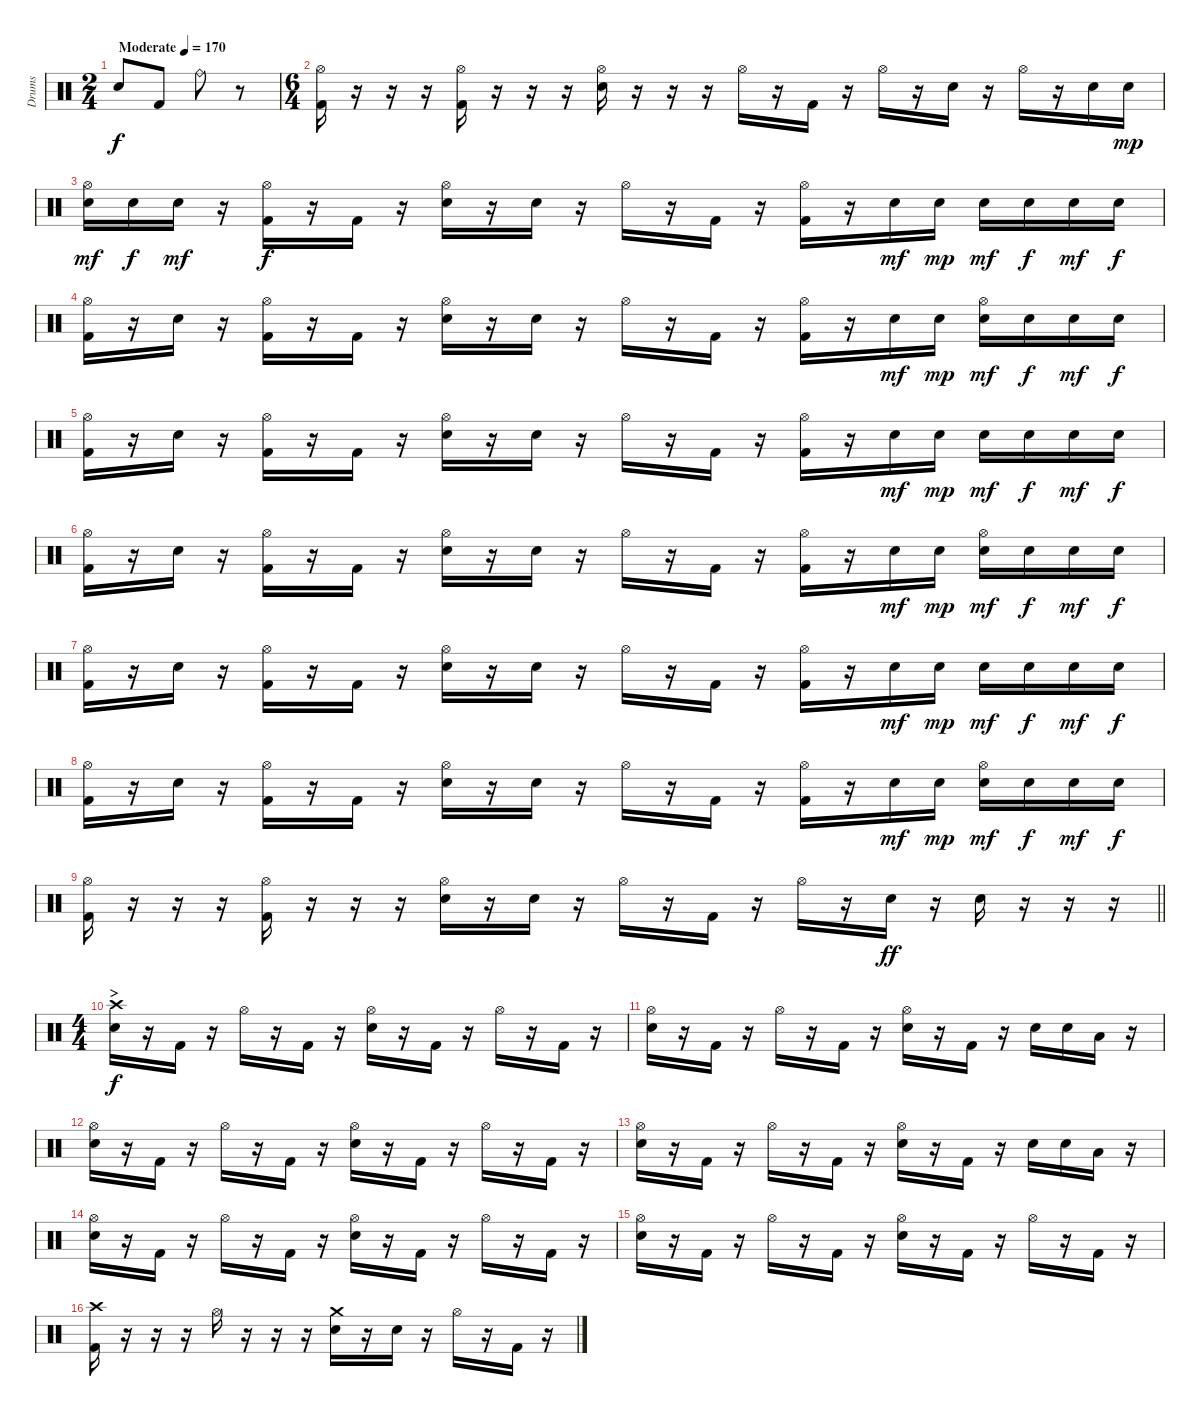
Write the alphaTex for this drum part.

\track ("Drums" "Drums") {instrument percussion}
\staff {score}
\articulation defaults
\ts (2 4)
\tempo (170 "Moderate")
\clef neutral
\ks c "Electric Snare (hit)".8{dy f} "Kick (hit) 2".8 "Ride (bell)".8
r.8 |
\ts (6 4)
("Hi-Hat (open)" "Kick (hit) 2").16 r.16 r.16 r.16 ("Hi-Hat (open)" "Kick (hit) 2").16 r.16 r.16 r.16 ("Hi-Hat (open)" "Electric Snare (hit)").16 r.16 r.16 r.16 "Hi-Hat (open)".16 r.16 "Kick (hit) 2".16 r.16 "Hi-Hat (open)".16 r.16 "Electric Snare (hit)".16 r.16 "Hi-Hat (open)".16 r.16 "Electric Snare (hit)".16 "Electric Snare (hit)".16{dy mp} |
("Hi-Hat (open)" "Electric Snare (hit)").16{dy mf} "Electric Snare (hit)".16{dy f} "Electric Snare (hit)".16{dy mf} r.16 ("Hi-Hat (open)" "Kick (hit) 2").16{dy f} r.16 "Kick (hit) 2".16 r.16 ("Hi-Hat (open)" "Electric Snare (hit)").16 r.16 "Electric Snare (hit)".16 r.16 "Hi-Hat (open)".16 r.16 "Kick (hit) 2".16 r.16 ("Hi-Hat (open)" "Kick (hit) 2").16 r.16 "Electric Snare (hit)".16{dy mf} "Electric Snare (hit)".16{dy mp} "Electric Snare (hit)".16{dy mf} "Electric Snare (hit)".16{dy f} "Electric Snare (hit)".16{dy mf} "Electric Snare (hit)".16{dy f} |
("Hi-Hat (open)" "Kick (hit) 2").16 r.16 "Electric Snare (hit)".16 r.16 ("Hi-Hat (open)" "Kick (hit) 2").16 r.16 "Kick (hit) 2".16 r.16 ("Hi-Hat (open)" "Electric Snare (hit)").16 r.16 "Electric Snare (hit)".16 r.16 "Hi-Hat (open)".16 r.16 "Kick (hit) 2".16 r.16 ("Hi-Hat (open)" "Kick (hit) 2").16 r.16 "Electric Snare (hit)".16{dy mf} "Electric Snare (hit)".16{dy mp} ("Hi-Hat (open)" "Electric Snare (hit)").16{dy mf} "Electric Snare (hit)".16{dy f} "Electric Snare (hit)".16{dy mf} "Electric Snare (hit)".16{dy f} |
("Hi-Hat (open)" "Kick (hit) 2").16 r.16 "Electric Snare (hit)".16 r.16 ("Hi-Hat (open)" "Kick (hit) 2").16 r.16 "Kick (hit) 2".16 r.16 ("Hi-Hat (open)" "Electric Snare (hit)").16 r.16 "Electric Snare (hit)".16 r.16 "Hi-Hat (open)".16 r.16 "Kick (hit) 2".16 r.16 ("Hi-Hat (open)" "Kick (hit) 2").16 r.16 "Electric Snare (hit)".16{dy mf} "Electric Snare (hit)".16{dy mp} "Electric Snare (hit)".16{dy mf} "Electric Snare (hit)".16{dy f} "Electric Snare (hit)".16{dy mf} "Electric Snare (hit)".16{dy f} |
("Hi-Hat (open)" "Kick (hit) 2").16 r.16 "Electric Snare (hit)".16 r.16 ("Hi-Hat (open)" "Kick (hit) 2").16 r.16 "Kick (hit) 2".16 r.16 ("Hi-Hat (open)" "Electric Snare (hit)").16 r.16 "Electric Snare (hit)".16 r.16 "Hi-Hat (open)".16 r.16 "Kick (hit) 2".16 r.16 ("Hi-Hat (open)" "Kick (hit) 2").16 r.16 "Electric Snare (hit)".16{dy mf} "Electric Snare (hit)".16{dy mp} ("Hi-Hat (open)" "Electric Snare (hit)").16{dy mf} "Electric Snare (hit)".16{dy f} "Electric Snare (hit)".16{dy mf} "Electric Snare (hit)".16{dy f} |
("Hi-Hat (open)" "Kick (hit) 2").16 r.16 "Electric Snare (hit)".16 r.16 ("Hi-Hat (open)" "Kick (hit) 2").16 r.16 "Kick (hit) 2".16 r.16 ("Hi-Hat (open)" "Electric Snare (hit)").16 r.16 "Electric Snare (hit)".16 r.16 "Hi-Hat (open)".16 r.16 "Kick (hit) 2".16 r.16 ("Hi-Hat (open)" "Kick (hit) 2").16 r.16 "Electric Snare (hit)".16{dy mf} "Electric Snare (hit)".16{dy mp} "Electric Snare (hit)".16{dy mf} "Electric Snare (hit)".16{dy f} "Electric Snare (hit)".16{dy mf} "Electric Snare (hit)".16{dy f} |
("Hi-Hat (open)" "Kick (hit) 2").16 r.16 "Electric Snare (hit)".16 r.16 ("Hi-Hat (open)" "Kick (hit) 2").16 r.16 "Kick (hit) 2".16 r.16 ("Hi-Hat (open)" "Electric Snare (hit)").16 r.16 "Electric Snare (hit)".16 r.16 "Hi-Hat (open)".16 r.16 "Kick (hit) 2".16 r.16 ("Hi-Hat (open)" "Kick (hit) 2").16 r.16 "Electric Snare (hit)".16{dy mf} "Electric Snare (hit)".16{dy mp} ("Hi-Hat (open)" "Electric Snare (hit)").16{dy mf} "Electric Snare (hit)".16{dy f} "Electric Snare (hit)".16{dy mf} "Electric Snare (hit)".16{dy f} |
\barLineRight lightlight
("Hi-Hat (open)" "Kick (hit) 2").16 r.16 r.16 r.16 ("Hi-Hat (open)" "Kick (hit) 2").16 r.16 r.16 r.16 ("Hi-Hat (open)" "Electric Snare (hit)").16 r.16 "Electric Snare (hit)".16 r.16 "Hi-Hat (open)".16 r.16 "Kick (hit) 2".16 r.16 "Hi-Hat (open)".16 r.16 "Electric Snare (hit)".16{dy ff} r.16 "Electric Snare (hit)".16 r.16 r.16 r.16 |
\ts (4 4)
\section ("" ">")
("Crash high (hit)" "Electric Snare (hit)").16{dy f} r.16 "Kick (hit) 2".16 r.16 "Hi-Hat (open)".16 r.16 "Kick (hit) 2".16 r.16 ("Hi-Hat (open)" "Electric Snare (hit)").16 r.16 "Kick (hit) 2".16 r.16 "Hi-Hat (open)".16 r.16 "Kick (hit) 2".16 r.16 |
("Hi-Hat (open)" "Electric Snare (hit)").16 r.16 "Kick (hit) 2".16 r.16 "Hi-Hat (open)".16 r.16 "Kick (hit) 2".16 r.16 ("Hi-Hat (open)" "Electric Snare (hit)").16 r.16 "Kick (hit) 2".16 r.16 "Electric Snare (hit)".16 "Electric Snare (hit)".16 "Low Tom (hit)".16 r.16 |
("Hi-Hat (open)" "Electric Snare (hit)").16 r.16 "Kick (hit) 2".16 r.16 "Hi-Hat (open)".16 r.16 "Kick (hit) 2".16 r.16 ("Hi-Hat (open)" "Electric Snare (hit)").16 r.16 "Kick (hit) 2".16 r.16 "Hi-Hat (open)".16 r.16 "Kick (hit) 2".16 r.16 |
("Hi-Hat (open)" "Electric Snare (hit)").16 r.16 "Kick (hit) 2".16 r.16 "Hi-Hat (open)".16 r.16 "Kick (hit) 2".16 r.16 ("Hi-Hat (open)" "Electric Snare (hit)").16 r.16 "Kick (hit) 2".16 r.16 "Electric Snare (hit)".16 "Electric Snare (hit)".16 "Low Tom (hit)".16 r.16 |
("Hi-Hat (open)" "Electric Snare (hit)").16 r.16 "Kick (hit) 2".16 r.16 "Hi-Hat (open)".16 r.16 "Kick (hit) 2".16 r.16 ("Hi-Hat (open)" "Electric Snare (hit)").16 r.16 "Kick (hit) 2".16 r.16 "Hi-Hat (open)".16 r.16 "Kick (hit) 2".16 r.16 |
("Hi-Hat (open)" "Electric Snare (hit)").16 r.16 "Kick (hit) 2".16 r.16 "Hi-Hat (open)".16 r.16 "Kick (hit) 2".16 r.16 ("Hi-Hat (open)" "Electric Snare (hit)").16 r.16 "Kick (hit) 2".16 r.16 "Hi-Hat (open)".16 r.16 "Kick (hit) 2".16 r.16 |
("Crash high (hit)" "Kick (hit) 2").16 r.16 r.16 r.16 "Hi-Hat (open)".16 r.16 r.16 r.16 ("Crash medium (hit)" "Electric Snare (hit)").16 r.16 "Electric Snare (hit)".16 r.16 "Hi-Hat (open)".16 r.16 "Kick (hit) 2".16 r.16
